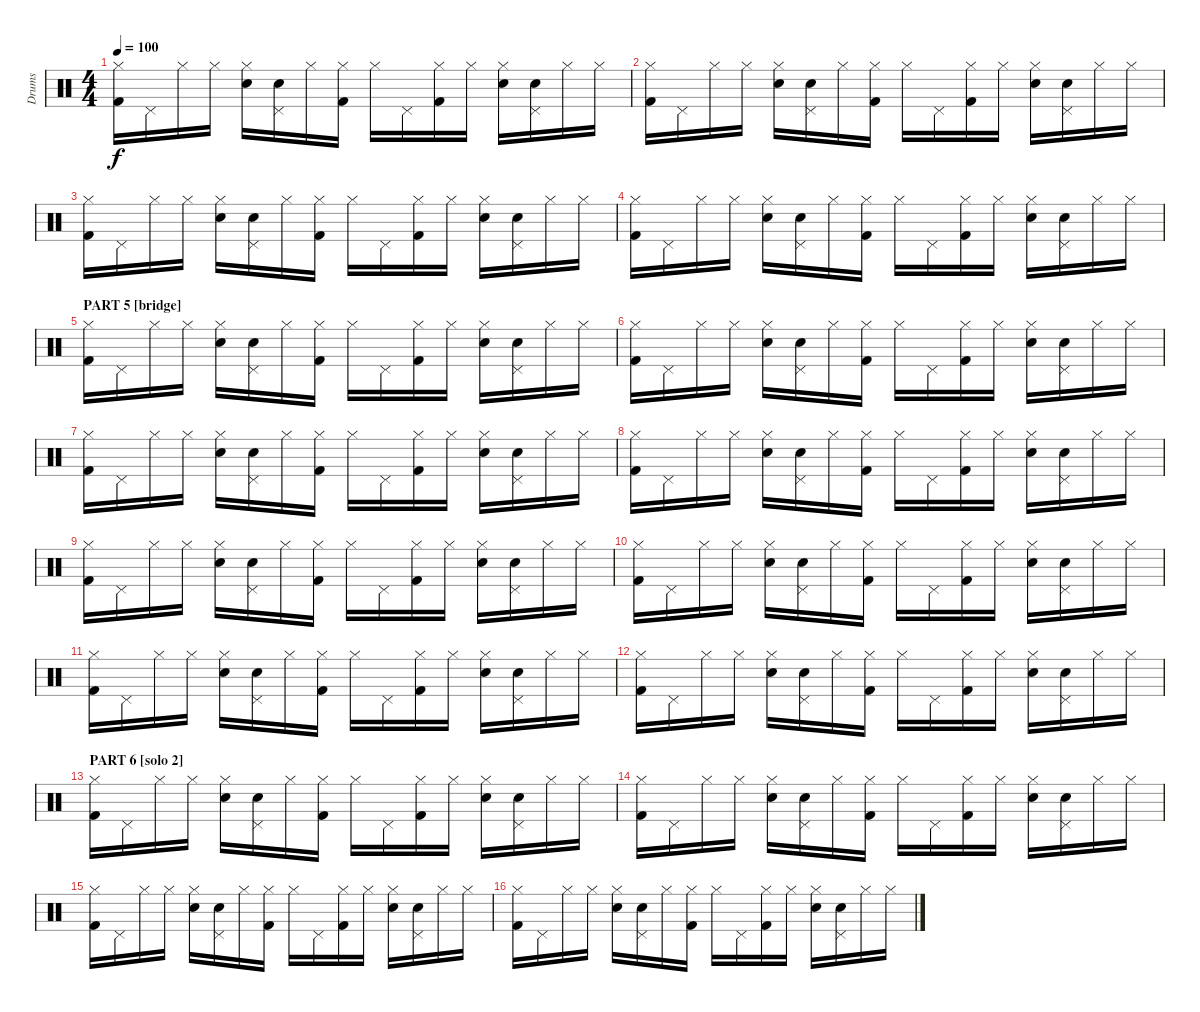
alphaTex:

\track ("Drums" "Drums") {instrument percussion}
\staff {score}
\articulation defaults
\ts (4 4)
\tempo 100
\clef neutral
\ks c
("Kick (hit) 2" "Hi-Hat (closed)").16{dy f} "Pedal Hi-Hat (hit)".16 "Hi-Hat (closed)".16 "Hi-Hat (closed)".16 ("Snare (hit) 2" "Hi-Hat (closed)").16 ("Snare (hit) 2" "Pedal Hi-Hat (hit)").16 "Hi-Hat (closed)".16 ("Kick (hit) 2" "Hi-Hat (closed)").16 "Hi-Hat (closed)".16 "Pedal Hi-Hat (hit)".16 ("Kick (hit) 2" "Hi-Hat (closed)").16 "Hi-Hat (closed)".16 ("Snare (hit) 2" "Hi-Hat (closed)").16 ("Snare (hit) 2" "Pedal Hi-Hat (hit)").16 "Hi-Hat (closed)".16 "Hi-Hat (closed)".16 |
("Kick (hit) 2" "Hi-Hat (closed)").16 "Pedal Hi-Hat (hit)".16 "Hi-Hat (closed)".16 "Hi-Hat (closed)".16 ("Snare (hit) 2" "Hi-Hat (closed)").16 ("Snare (hit) 2" "Pedal Hi-Hat (hit)").16 "Hi-Hat (closed)".16 ("Kick (hit) 2" "Hi-Hat (closed)").16 "Hi-Hat (closed)".16 "Pedal Hi-Hat (hit)".16 ("Kick (hit) 2" "Hi-Hat (closed)").16 "Hi-Hat (closed)".16 ("Snare (hit) 2" "Hi-Hat (closed)").16 ("Snare (hit) 2" "Pedal Hi-Hat (hit)").16 "Hi-Hat (closed)".16 "Hi-Hat (closed)".16 |
("Kick (hit) 2" "Hi-Hat (closed)").16 "Pedal Hi-Hat (hit)".16 "Hi-Hat (closed)".16 "Hi-Hat (closed)".16 ("Snare (hit) 2" "Hi-Hat (closed)").16 ("Snare (hit) 2" "Pedal Hi-Hat (hit)").16 "Hi-Hat (closed)".16 ("Kick (hit) 2" "Hi-Hat (closed)").16 "Hi-Hat (closed)".16 "Pedal Hi-Hat (hit)".16 ("Kick (hit) 2" "Hi-Hat (closed)").16 "Hi-Hat (closed)".16 ("Snare (hit) 2" "Hi-Hat (closed)").16 ("Snare (hit) 2" "Pedal Hi-Hat (hit)").16 "Hi-Hat (closed)".16 "Hi-Hat (closed)".16 |
("Kick (hit) 2" "Hi-Hat (closed)").16 "Pedal Hi-Hat (hit)".16 "Hi-Hat (closed)".16 "Hi-Hat (closed)".16 ("Snare (hit) 2" "Hi-Hat (closed)").16 ("Snare (hit) 2" "Pedal Hi-Hat (hit)").16 "Hi-Hat (closed)".16 ("Kick (hit) 2" "Hi-Hat (closed)").16 "Hi-Hat (closed)".16 "Pedal Hi-Hat (hit)".16 ("Kick (hit) 2" "Hi-Hat (closed)").16 "Hi-Hat (closed)".16 ("Snare (hit) 2" "Hi-Hat (closed)").16 ("Snare (hit) 2" "Pedal Hi-Hat (hit)").16 "Hi-Hat (closed)".16 "Hi-Hat (closed)".16 |
\section ("" "PART 5 [bridge]")
("Kick (hit) 2" "Hi-Hat (closed)").16 "Pedal Hi-Hat (hit)".16 "Hi-Hat (closed)".16 "Hi-Hat (closed)".16 ("Snare (hit) 2" "Hi-Hat (closed)").16 ("Snare (hit) 2" "Pedal Hi-Hat (hit)").16 "Hi-Hat (closed)".16 ("Kick (hit) 2" "Hi-Hat (closed)").16 "Hi-Hat (closed)".16 "Pedal Hi-Hat (hit)".16 ("Kick (hit) 2" "Hi-Hat (closed)").16 "Hi-Hat (closed)".16 ("Snare (hit) 2" "Hi-Hat (closed)").16 ("Snare (hit) 2" "Pedal Hi-Hat (hit)").16 "Hi-Hat (closed)".16 "Hi-Hat (closed)".16 |
("Kick (hit) 2" "Hi-Hat (closed)").16 "Pedal Hi-Hat (hit)".16 "Hi-Hat (closed)".16 "Hi-Hat (closed)".16 ("Snare (hit) 2" "Hi-Hat (closed)").16 ("Snare (hit) 2" "Pedal Hi-Hat (hit)").16 "Hi-Hat (closed)".16 ("Kick (hit) 2" "Hi-Hat (closed)").16 "Hi-Hat (closed)".16 "Pedal Hi-Hat (hit)".16 ("Kick (hit) 2" "Hi-Hat (closed)").16 "Hi-Hat (closed)".16 ("Snare (hit) 2" "Hi-Hat (closed)").16 ("Snare (hit) 2" "Pedal Hi-Hat (hit)").16 "Hi-Hat (closed)".16 "Hi-Hat (closed)".16 |
("Kick (hit) 2" "Hi-Hat (closed)").16 "Pedal Hi-Hat (hit)".16 "Hi-Hat (closed)".16 "Hi-Hat (closed)".16 ("Snare (hit) 2" "Hi-Hat (closed)").16 ("Snare (hit) 2" "Pedal Hi-Hat (hit)").16 "Hi-Hat (closed)".16 ("Kick (hit) 2" "Hi-Hat (closed)").16 "Hi-Hat (closed)".16 "Pedal Hi-Hat (hit)".16 ("Kick (hit) 2" "Hi-Hat (closed)").16 "Hi-Hat (closed)".16 ("Snare (hit) 2" "Hi-Hat (closed)").16 ("Snare (hit) 2" "Pedal Hi-Hat (hit)").16 "Hi-Hat (closed)".16 "Hi-Hat (closed)".16 |
("Kick (hit) 2" "Hi-Hat (closed)").16 "Pedal Hi-Hat (hit)".16 "Hi-Hat (closed)".16 "Hi-Hat (closed)".16 ("Snare (hit) 2" "Hi-Hat (closed)").16 ("Snare (hit) 2" "Pedal Hi-Hat (hit)").16 "Hi-Hat (closed)".16 ("Kick (hit) 2" "Hi-Hat (closed)").16 "Hi-Hat (closed)".16 "Pedal Hi-Hat (hit)".16 ("Kick (hit) 2" "Hi-Hat (closed)").16 "Hi-Hat (closed)".16 ("Snare (hit) 2" "Hi-Hat (closed)").16 ("Snare (hit) 2" "Pedal Hi-Hat (hit)").16 "Hi-Hat (closed)".16 "Hi-Hat (closed)".16 |
("Kick (hit) 2" "Hi-Hat (closed)").16 "Pedal Hi-Hat (hit)".16 "Hi-Hat (closed)".16 "Hi-Hat (closed)".16 ("Snare (hit) 2" "Hi-Hat (closed)").16 ("Snare (hit) 2" "Pedal Hi-Hat (hit)").16 "Hi-Hat (closed)".16 ("Kick (hit) 2" "Hi-Hat (closed)").16 "Hi-Hat (closed)".16 "Pedal Hi-Hat (hit)".16 ("Kick (hit) 2" "Hi-Hat (closed)").16 "Hi-Hat (closed)".16 ("Snare (hit) 2" "Hi-Hat (closed)").16 ("Snare (hit) 2" "Pedal Hi-Hat (hit)").16 "Hi-Hat (closed)".16 "Hi-Hat (closed)".16 |
("Kick (hit) 2" "Hi-Hat (closed)").16 "Pedal Hi-Hat (hit)".16 "Hi-Hat (closed)".16 "Hi-Hat (closed)".16 ("Snare (hit) 2" "Hi-Hat (closed)").16 ("Snare (hit) 2" "Pedal Hi-Hat (hit)").16 "Hi-Hat (closed)".16 ("Kick (hit) 2" "Hi-Hat (closed)").16 "Hi-Hat (closed)".16 "Pedal Hi-Hat (hit)".16 ("Kick (hit) 2" "Hi-Hat (closed)").16 "Hi-Hat (closed)".16 ("Snare (hit) 2" "Hi-Hat (closed)").16 ("Snare (hit) 2" "Pedal Hi-Hat (hit)").16 "Hi-Hat (closed)".16 "Hi-Hat (closed)".16 |
("Kick (hit) 2" "Hi-Hat (closed)").16 "Pedal Hi-Hat (hit)".16 "Hi-Hat (closed)".16 "Hi-Hat (closed)".16 ("Snare (hit) 2" "Hi-Hat (closed)").16 ("Snare (hit) 2" "Pedal Hi-Hat (hit)").16 "Hi-Hat (closed)".16 ("Kick (hit) 2" "Hi-Hat (closed)").16 "Hi-Hat (closed)".16 "Pedal Hi-Hat (hit)".16 ("Kick (hit) 2" "Hi-Hat (closed)").16 "Hi-Hat (closed)".16 ("Snare (hit) 2" "Hi-Hat (closed)").16 ("Snare (hit) 2" "Pedal Hi-Hat (hit)").16 "Hi-Hat (closed)".16 "Hi-Hat (closed)".16 |
("Kick (hit) 2" "Hi-Hat (closed)").16 "Pedal Hi-Hat (hit)".16 "Hi-Hat (closed)".16 "Hi-Hat (closed)".16 ("Snare (hit) 2" "Hi-Hat (closed)").16 ("Snare (hit) 2" "Pedal Hi-Hat (hit)").16 "Hi-Hat (closed)".16 ("Kick (hit) 2" "Hi-Hat (closed)").16 "Hi-Hat (closed)".16 "Pedal Hi-Hat (hit)".16 ("Kick (hit) 2" "Hi-Hat (closed)").16 "Hi-Hat (closed)".16 ("Snare (hit) 2" "Hi-Hat (closed)").16 ("Snare (hit) 2" "Pedal Hi-Hat (hit)").16 "Hi-Hat (closed)".16 "Hi-Hat (closed)".16 |
\section ("" "PART 6 [solo 2]")
("Kick (hit) 2" "Hi-Hat (closed)").16 "Pedal Hi-Hat (hit)".16 "Hi-Hat (closed)".16 "Hi-Hat (closed)".16 ("Snare (hit) 2" "Hi-Hat (closed)").16 ("Snare (hit) 2" "Pedal Hi-Hat (hit)").16 "Hi-Hat (closed)".16 ("Kick (hit) 2" "Hi-Hat (closed)").16 "Hi-Hat (closed)".16 "Pedal Hi-Hat (hit)".16 ("Kick (hit) 2" "Hi-Hat (closed)").16 "Hi-Hat (closed)".16 ("Snare (hit) 2" "Hi-Hat (closed)").16 ("Snare (hit) 2" "Pedal Hi-Hat (hit)").16 "Hi-Hat (closed)".16 "Hi-Hat (closed)".16 |
("Kick (hit) 2" "Hi-Hat (closed)").16 "Pedal Hi-Hat (hit)".16 "Hi-Hat (closed)".16 "Hi-Hat (closed)".16 ("Snare (hit) 2" "Hi-Hat (closed)").16 ("Snare (hit) 2" "Pedal Hi-Hat (hit)").16 "Hi-Hat (closed)".16 ("Kick (hit) 2" "Hi-Hat (closed)").16 "Hi-Hat (closed)".16 "Pedal Hi-Hat (hit)".16 ("Kick (hit) 2" "Hi-Hat (closed)").16 "Hi-Hat (closed)".16 ("Snare (hit) 2" "Hi-Hat (closed)").16 ("Snare (hit) 2" "Pedal Hi-Hat (hit)").16 "Hi-Hat (closed)".16 "Hi-Hat (closed)".16 |
("Kick (hit) 2" "Hi-Hat (closed)").16 "Pedal Hi-Hat (hit)".16 "Hi-Hat (closed)".16 "Hi-Hat (closed)".16 ("Snare (hit) 2" "Hi-Hat (closed)").16 ("Snare (hit) 2" "Pedal Hi-Hat (hit)").16 "Hi-Hat (closed)".16 ("Kick (hit) 2" "Hi-Hat (closed)").16 "Hi-Hat (closed)".16 "Pedal Hi-Hat (hit)".16 ("Kick (hit) 2" "Hi-Hat (closed)").16 "Hi-Hat (closed)".16 ("Snare (hit) 2" "Hi-Hat (closed)").16 ("Snare (hit) 2" "Pedal Hi-Hat (hit)").16 "Hi-Hat (closed)".16 "Hi-Hat (closed)".16 |
("Kick (hit) 2" "Hi-Hat (closed)").16 "Pedal Hi-Hat (hit)".16 "Hi-Hat (closed)".16 "Hi-Hat (closed)".16 ("Snare (hit) 2" "Hi-Hat (closed)").16 ("Snare (hit) 2" "Pedal Hi-Hat (hit)").16 "Hi-Hat (closed)".16 ("Kick (hit) 2" "Hi-Hat (closed)").16 "Hi-Hat (closed)".16 "Pedal Hi-Hat (hit)".16 ("Kick (hit) 2" "Hi-Hat (closed)").16 "Hi-Hat (closed)".16 ("Snare (hit) 2" "Hi-Hat (closed)").16 ("Snare (hit) 2" "Pedal Hi-Hat (hit)").16 "Hi-Hat (closed)".16 "Hi-Hat (closed)".16
